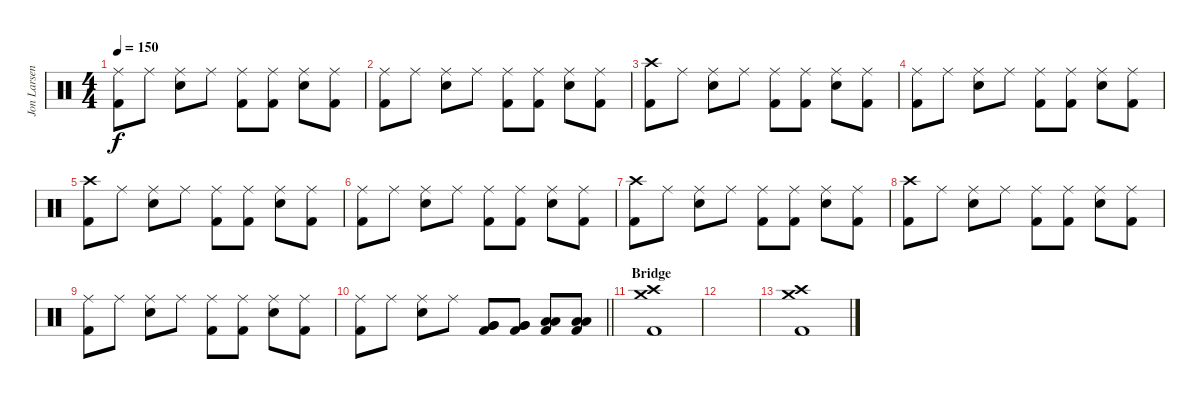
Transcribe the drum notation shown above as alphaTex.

\track ("Jon Larsen" "Jon Larsen") {instrument percussion}
\staff {score}
\articulation defaults
\ts (4 4)
\tempo 150
\clef neutral
\ks c
("Ride (middle)" "Kick (hit) 2").8{dy f} "Ride (middle)".8 ("Ride (middle)" "Electric Snare (hit)").8 "Ride (middle)".8 ("Ride (middle)" "Kick (hit) 2").8 ("Ride (middle)" "Kick (hit) 2").8 ("Ride (middle)" "Electric Snare (hit)").8 ("Ride (middle)" "Kick (hit) 2").8 |
("Ride (middle)" "Kick (hit) 2").8 "Ride (middle)".8 ("Ride (middle)" "Electric Snare (hit)").8 "Ride (middle)".8 ("Ride (middle)" "Kick (hit) 2").8 ("Ride (middle)" "Kick (hit) 2").8 ("Ride (middle)" "Electric Snare (hit)").8 ("Ride (middle)" "Kick (hit) 2").8 |
("Crash high (hit)" "Kick (hit) 2").8 "Ride (middle)".8 ("Ride (middle)" "Electric Snare (hit)").8 "Ride (middle)".8 ("Ride (middle)" "Kick (hit) 2").8 ("Ride (middle)" "Kick (hit) 2").8 ("Ride (middle)" "Electric Snare (hit)").8 ("Ride (middle)" "Kick (hit) 2").8 |
("Ride (middle)" "Kick (hit) 2").8 "Ride (middle)".8 ("Ride (middle)" "Electric Snare (hit)").8 "Ride (middle)".8 ("Ride (middle)" "Kick (hit) 2").8 ("Ride (middle)" "Kick (hit) 2").8 ("Ride (middle)" "Electric Snare (hit)").8 ("Ride (middle)" "Kick (hit) 2").8 |
("Crash high (hit)" "Kick (hit) 2").8 "Ride (middle)".8 ("Ride (middle)" "Electric Snare (hit)").8 "Ride (middle)".8 ("Ride (middle)" "Kick (hit) 2").8 ("Ride (middle)" "Kick (hit) 2").8 ("Ride (middle)" "Electric Snare (hit)").8 ("Ride (middle)" "Kick (hit) 2").8 |
("Ride (middle)" "Kick (hit) 2").8 "Ride (middle)".8 ("Ride (middle)" "Electric Snare (hit)").8 "Ride (middle)".8 ("Ride (middle)" "Kick (hit) 2").8 ("Ride (middle)" "Kick (hit) 2").8 ("Ride (middle)" "Electric Snare (hit)").8 ("Ride (middle)" "Kick (hit) 2").8 |
("Crash high (hit)" "Kick (hit) 2").8 "Ride (middle)".8 ("Ride (middle)" "Electric Snare (hit)").8 "Ride (middle)".8 ("Ride (middle)" "Kick (hit) 2").8 ("Ride (middle)" "Kick (hit) 2").8 ("Ride (middle)" "Electric Snare (hit)").8 ("Ride (middle)" "Kick (hit) 2").8 |
("Crash high (hit)" "Kick (hit) 2").8 "Ride (middle)".8 ("Ride (middle)" "Electric Snare (hit)").8 "Ride (middle)".8 ("Ride (middle)" "Kick (hit) 2").8 ("Ride (middle)" "Kick (hit) 2").8 ("Ride (middle)" "Electric Snare (hit)").8 ("Ride (middle)" "Kick (hit) 2").8 |
("Ride (middle)" "Kick (hit) 2").8 "Ride (middle)".8 ("Ride (middle)" "Electric Snare (hit)").8 "Ride (middle)".8 ("Ride (middle)" "Kick (hit) 2").8 ("Ride (middle)" "Kick (hit) 2").8 ("Ride (middle)" "Electric Snare (hit)").8 ("Ride (middle)" "Kick (hit) 2").8 |
\barLineRight lightlight
("Ride (middle)" "Kick (hit) 2").8 "Ride (middle)".8 ("Ride (middle)" "Electric Snare (hit)").8 "Ride (middle)".8 ("Very Low Tom (hit)" "Very Low Tom (hit)" "Kick (hit) 2").8 ("Very Low Tom (hit)" "Very Low Tom (hit)" "Kick (hit) 2").8 ("Low Floor Tom (hit)" "Low Floor Tom (hit)" "Kick (hit) 2").8 ("Low Floor Tom (hit)" "Low Floor Tom (hit)" "Kick (hit) 2").8 |
\section ("" "Bridge")
("Crash high (hit)" "Crash medium (hit)" "Kick (hit) 2").1 |
|
("Crash high (hit)" "Crash medium (hit)" "Kick (hit) 2").1
